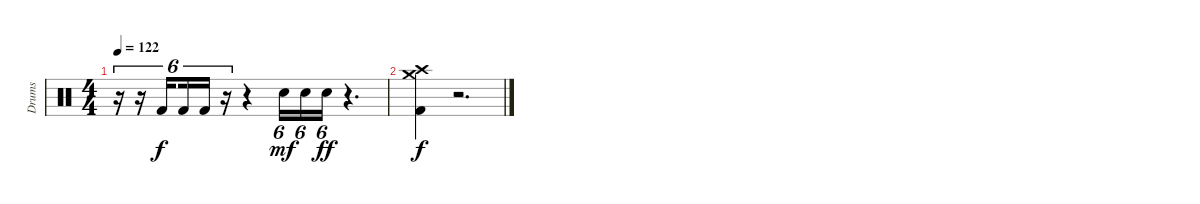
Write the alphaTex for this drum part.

\track ("Drums" "Drums") {instrument percussion}
\staff {score}
\articulation defaults
\ts (4 4)
\tempo 122
\clef neutral
\ks c
r.16{tu (6 4) dy f} r.16{tu (6 4)} "Kick (hit) 2".16{tu (6 4) beam splitsecondary} "Kick (hit) 2".16{tu (6 4)} "Kick (hit) 2".16{tu (6 4)} r.16{tu (6 4)} r.4 "Electric Snare (hit)".16{tu (6 4) dy mf} "Electric Snare (hit)".16{tu (6 4)} "Electric Snare (hit)".16{tu (6 4) dy ff} r.4{d} |
("Crash medium (hit)" "Crash high (hit)" "Kick (hit) 2").4{dy f} r.2{d}
